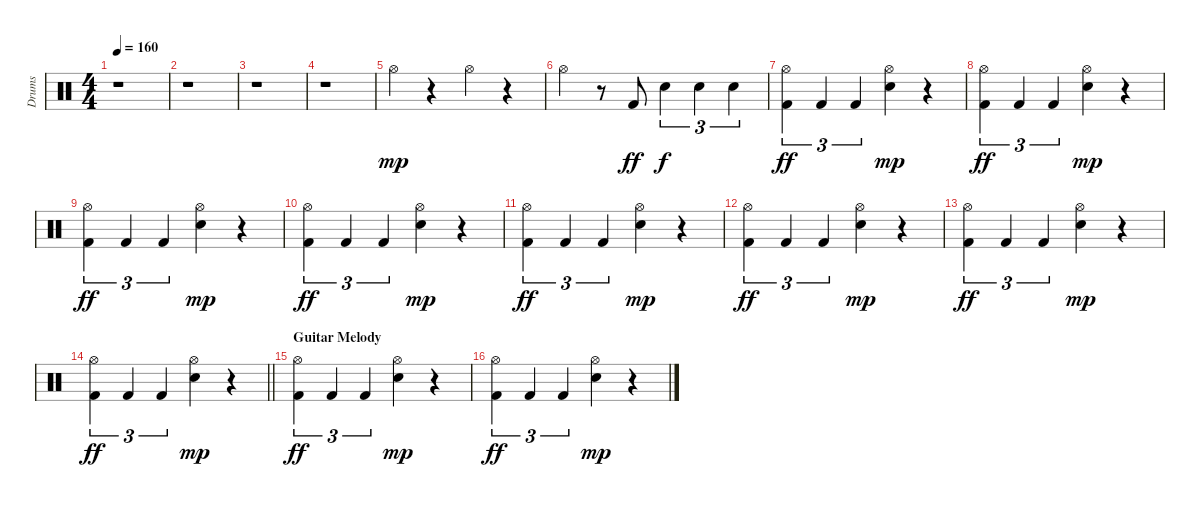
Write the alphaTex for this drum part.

\track ("Drums" "Drums") {instrument percussion}
\staff {score}
\articulation defaults
\ts (4 4)
\tempo 160
\clef neutral
\ks c
r.1{dy ff} |
r.1 |
r.1 |
r.1 |
"Hi-Hat (open)".4{dy mp} r.4 "Hi-Hat (open)".4 r.4 |
"Hi-Hat (open)".4 r.8 "Kick (hit) 2".8{dy ff} "Electric Snare (hit)".4{tu (3 2) dy f} "Electric Snare (hit)".4{tu (3 2)} "Electric Snare (hit)".4{tu (3 2)} |
("Hi-Hat (open)" "Kick (hit) 2").4{tu (3 2) dy ff} "Kick (hit) 2".4{tu (3 2)} "Kick (hit) 2".4{tu (3 2)} ("Hi-Hat (open)" "Electric Snare (hit)").4{dy mp} r.4 |
("Hi-Hat (open)" "Kick (hit) 2").4{tu (3 2) dy ff} "Kick (hit) 2".4{tu (3 2)} "Kick (hit) 2".4{tu (3 2)} ("Hi-Hat (open)" "Electric Snare (hit)").4{dy mp} r.4 |
("Hi-Hat (open)" "Kick (hit) 2").4{tu (3 2) dy ff} "Kick (hit) 2".4{tu (3 2)} "Kick (hit) 2".4{tu (3 2)} ("Hi-Hat (open)" "Electric Snare (hit)").4{dy mp} r.4 |
("Hi-Hat (open)" "Kick (hit) 2").4{tu (3 2) dy ff} "Kick (hit) 2".4{tu (3 2)} "Kick (hit) 2".4{tu (3 2)} ("Hi-Hat (open)" "Electric Snare (hit)").4{dy mp} r.4 |
("Hi-Hat (open)" "Kick (hit) 2").4{tu (3 2) dy ff} "Kick (hit) 2".4{tu (3 2)} "Kick (hit) 2".4{tu (3 2)} ("Hi-Hat (open)" "Electric Snare (hit)").4{dy mp} r.4 |
("Hi-Hat (open)" "Kick (hit) 2").4{tu (3 2) dy ff} "Kick (hit) 2".4{tu (3 2)} "Kick (hit) 2".4{tu (3 2)} ("Hi-Hat (open)" "Electric Snare (hit)").4{dy mp} r.4 |
("Hi-Hat (open)" "Kick (hit) 2").4{tu (3 2) dy ff} "Kick (hit) 2".4{tu (3 2)} "Kick (hit) 2".4{tu (3 2)} ("Hi-Hat (open)" "Electric Snare (hit)").4{dy mp} r.4 |
\barLineRight lightlight
("Hi-Hat (open)" "Kick (hit) 2").4{tu (3 2) dy ff} "Kick (hit) 2".4{tu (3 2)} "Kick (hit) 2".4{tu (3 2)} ("Hi-Hat (open)" "Electric Snare (hit)").4{dy mp} r.4 |
\section ("" "Guitar Melody")
("Hi-Hat (open)" "Kick (hit) 2").4{tu (3 2) dy ff} "Kick (hit) 2".4{tu (3 2)} "Kick (hit) 2".4{tu (3 2)} ("Hi-Hat (open)" "Electric Snare (hit)").4{dy mp} r.4 |
("Hi-Hat (open)" "Kick (hit) 2").4{tu (3 2) dy ff} "Kick (hit) 2".4{tu (3 2)} "Kick (hit) 2".4{tu (3 2)} ("Hi-Hat (open)" "Electric Snare (hit)").4{dy mp} r.4
